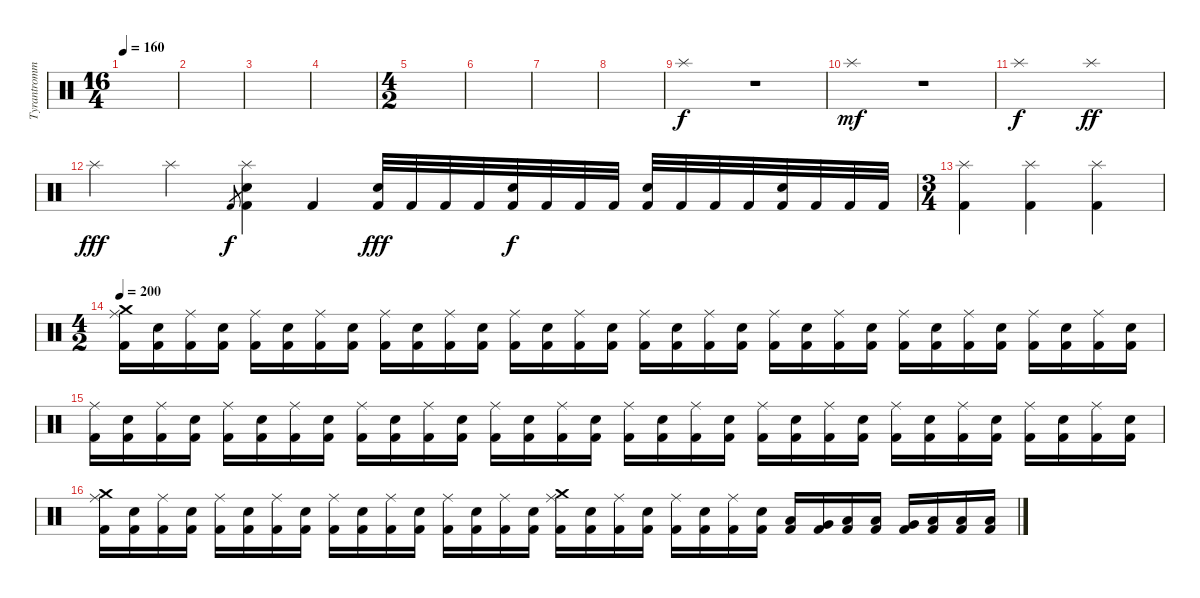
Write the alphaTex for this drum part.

\track ("Tyrantrommerslager" "Tyrantromm") {instrument percussion}
\staff {score}
\articulation defaults
\ts (16 4)
\tempo 160
\clef neutral
\ks c
|
|
|
|
\ts (4 2)
|
|
|
|
"Splash (hit)".1 r.1 |
"Splash (hit)".1{dy mf} r.1 |
"Splash (hit)".1{dy f} "Splash (hit)".1{dy ff} |
"Splash (hit)".2{dy fff} "Splash (hit)".2 "Kick (hit) 2".8{gr dy f} ("Kick (hit) 2" "Splash (hit)" "Electric Snare (hit)").4 "Kick (hit) 2".4 ("Kick (hit) 2" "Electric Snare (hit)").32{dy fff} "Kick (hit) 2".32 "Kick (hit) 2".32 "Kick (hit) 2".32 ("Kick (hit) 2" "Electric Snare (hit)").32{dy f} "Kick (hit) 2".32 "Kick (hit) 2".32 "Kick (hit) 2".32 ("Kick (hit) 2" "Electric Snare (hit)").32 "Kick (hit) 2".32 "Kick (hit) 2".32 "Kick (hit) 2".32 ("Kick (hit) 2" "Electric Snare (hit)").32 "Kick (hit) 2".32 "Kick (hit) 2".32 "Kick (hit) 2".32 |
\ts (3 4)
("Splash (hit)" "Kick (hit) 2").4 ("Splash (hit)" "Kick (hit) 2").4 ("Splash (hit)" "Kick (hit) 2").4 |
\ts (4 2)
\tempo 200
("Kick (hit) 2" "Crash medium (hit)" "Ride (middle)").16 ("Kick (hit) 2" "Electric Snare (hit)").16 ("Kick (hit) 2" "Ride (middle)").16 ("Kick (hit) 2" "Electric Snare (hit)").16 ("Kick (hit) 2" "Ride (middle)").16 ("Kick (hit) 2" "Electric Snare (hit)").16 ("Kick (hit) 2" "Ride (middle)").16 ("Kick (hit) 2" "Electric Snare (hit)").16 ("Kick (hit) 2" "Ride (middle)").16 ("Kick (hit) 2" "Electric Snare (hit)").16 ("Kick (hit) 2" "Ride (middle)").16 ("Kick (hit) 2" "Electric Snare (hit)").16 ("Kick (hit) 2" "Ride (middle)").16 ("Kick (hit) 2" "Electric Snare (hit)").16 ("Kick (hit) 2" "Ride (middle)").16 ("Kick (hit) 2" "Electric Snare (hit)").16 ("Kick (hit) 2" "Ride (middle)").16 ("Kick (hit) 2" "Electric Snare (hit)").16 ("Kick (hit) 2" "Ride (middle)").16 ("Kick (hit) 2" "Electric Snare (hit)").16 ("Kick (hit) 2" "Ride (middle)").16 ("Kick (hit) 2" "Electric Snare (hit)").16 ("Kick (hit) 2" "Ride (middle)").16 ("Kick (hit) 2" "Electric Snare (hit)").16 ("Kick (hit) 2" "Ride (middle)").16 ("Kick (hit) 2" "Electric Snare (hit)").16 ("Kick (hit) 2" "Ride (middle)").16 ("Kick (hit) 2" "Electric Snare (hit)").16 ("Kick (hit) 2" "Ride (middle)").16 ("Kick (hit) 2" "Electric Snare (hit)").16 ("Kick (hit) 2" "Ride (middle)").16 ("Kick (hit) 2" "Electric Snare (hit)").16 |
("Kick (hit) 2" "Ride (middle)").16 ("Kick (hit) 2" "Electric Snare (hit)").16 ("Kick (hit) 2" "Ride (middle)").16 ("Kick (hit) 2" "Electric Snare (hit)").16 ("Kick (hit) 2" "Ride (middle)").16 ("Kick (hit) 2" "Electric Snare (hit)").16 ("Kick (hit) 2" "Ride (middle)").16 ("Kick (hit) 2" "Electric Snare (hit)").16 ("Kick (hit) 2" "Ride (middle)").16 ("Kick (hit) 2" "Electric Snare (hit)").16 ("Kick (hit) 2" "Ride (middle)").16 ("Kick (hit) 2" "Electric Snare (hit)").16 ("Kick (hit) 2" "Ride (middle)").16 ("Kick (hit) 2" "Electric Snare (hit)").16 ("Kick (hit) 2" "Ride (middle)").16 ("Kick (hit) 2" "Electric Snare (hit)").16 ("Kick (hit) 2" "Ride (middle)").16 ("Kick (hit) 2" "Electric Snare (hit)").16 ("Kick (hit) 2" "Ride (middle)").16 ("Kick (hit) 2" "Electric Snare (hit)").16 ("Kick (hit) 2" "Ride (middle)").16 ("Kick (hit) 2" "Electric Snare (hit)").16 ("Kick (hit) 2" "Ride (middle)").16 ("Kick (hit) 2" "Electric Snare (hit)").16 ("Kick (hit) 2" "Ride (middle)").16 ("Kick (hit) 2" "Electric Snare (hit)").16 ("Kick (hit) 2" "Ride (middle)").16 ("Kick (hit) 2" "Electric Snare (hit)").16 ("Kick (hit) 2" "Ride (middle)").16 ("Kick (hit) 2" "Electric Snare (hit)").16 ("Kick (hit) 2" "Ride (middle)").16 ("Kick (hit) 2" "Electric Snare (hit)").16 |
("Kick (hit) 2" "Crash medium (hit)" "Ride (middle)").16 ("Kick (hit) 2" "Electric Snare (hit)").16 ("Kick (hit) 2" "Ride (middle)").16 ("Kick (hit) 2" "Electric Snare (hit)").16 ("Kick (hit) 2" "Ride (middle)").16 ("Kick (hit) 2" "Electric Snare (hit)").16 ("Kick (hit) 2" "Ride (middle)").16 ("Kick (hit) 2" "Electric Snare (hit)").16 ("Kick (hit) 2" "Ride (middle)").16 ("Kick (hit) 2" "Electric Snare (hit)").16 ("Kick (hit) 2" "Ride (middle)").16 ("Kick (hit) 2" "Electric Snare (hit)").16 ("Kick (hit) 2" "Ride (middle)").16 ("Kick (hit) 2" "Electric Snare (hit)").16 ("Kick (hit) 2" "Ride (middle)").16 ("Kick (hit) 2" "Electric Snare (hit)").16 ("Kick (hit) 2" "Crash medium (hit)" "Ride (middle)").16 ("Kick (hit) 2" "Electric Snare (hit)").16 ("Kick (hit) 2" "Ride (middle)").16 ("Kick (hit) 2" "Electric Snare (hit)").16 ("Kick (hit) 2" "Ride (middle)").16 ("Kick (hit) 2" "Electric Snare (hit)").16 ("Kick (hit) 2" "Ride (middle)").16 ("Kick (hit) 2" "Electric Snare (hit)").16 ("Kick (hit) 2" "Low Tom (hit)").16 ("Kick (hit) 2" "Very Low Tom (hit)").16 ("Kick (hit) 2" "Low Tom (hit)").16 ("Kick (hit) 2" "Low Tom (hit)").16 ("Kick (hit) 2" "Very Low Tom (hit)").16 ("Kick (hit) 2" "Low Floor Tom (hit)").16 ("Kick (hit) 2" "Low Floor Tom (hit)").16 ("Kick (hit) 2" "Low Floor Tom (hit)").16
